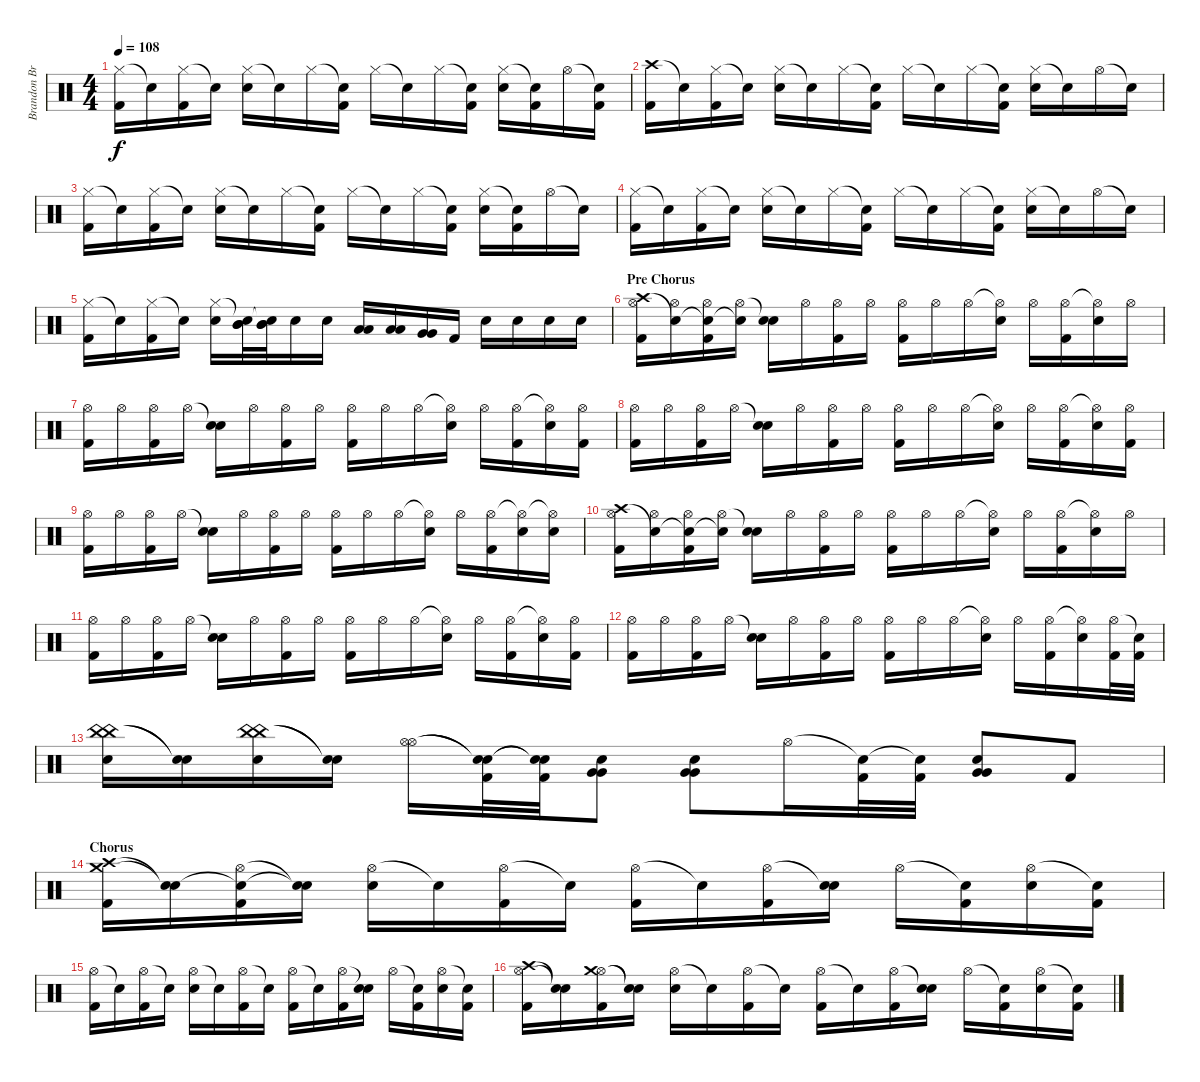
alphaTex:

\track ("Brandon Brown (Drums)" "Brandon Br") {instrument percussion}
\staff {score}
\articulation defaults
\ts (4 4)
\tempo 108
\clef neutral
\ks c
("Hi-Hat (closed)" "Kick (hit) 2").16{dy f} "Snare (hit)"{t}.16 ("Hi-Hat (closed)" "Kick (hit) 2").16 "Snare (hit)"{t}.16 ("Hi-Hat (closed)" "Electric Snare (hit)").16 "Snare (hit)"{t}.16 "Hi-Hat (closed)".16 ("Snare (hit)"{t} "Kick (hit) 2").16 "Hi-Hat (closed)".16 "Snare (hit)"{t}.16 "Hi-Hat (closed)".16 ("Snare (hit)"{t} "Kick (hit) 2").16 ("Hi-Hat (closed)" "Electric Snare (hit)").16 ("Snare (hit)"{t} "Kick (hit) 2").16 "Hi-Hat (open)".16 ("Snare (hit)"{t} "Kick (hit) 2").16 |
("Crash high (hit)" "Kick (hit) 2").16 "Snare (hit)"{t}.16 ("Hi-Hat (closed)" "Kick (hit) 2").16 "Snare (hit)"{t}.16 ("Hi-Hat (closed)" "Electric Snare (hit)").16 "Snare (hit)"{t}.16 "Hi-Hat (closed)".16 ("Snare (hit)"{t} "Kick (hit) 2").16 "Hi-Hat (closed)".16 "Snare (hit)"{t}.16 "Hi-Hat (closed)".16 ("Snare (hit)"{t} "Kick (hit) 2").16 ("Hi-Hat (closed)" "Electric Snare (hit)").16 "Snare (hit)"{t}.16 "Hi-Hat (open)".16 "Snare (hit)"{t}.16 |
("Hi-Hat (closed)" "Kick (hit) 2").16 "Snare (hit)"{t}.16 ("Hi-Hat (closed)" "Kick (hit) 2").16 "Snare (hit)"{t}.16 ("Hi-Hat (closed)" "Electric Snare (hit)").16 "Snare (hit)"{t}.16 "Hi-Hat (closed)".16 ("Snare (hit)"{t} "Kick (hit) 2").16 "Hi-Hat (closed)".16 "Snare (hit)"{t}.16 "Hi-Hat (closed)".16 ("Snare (hit)"{t} "Kick (hit) 2").16 ("Hi-Hat (closed)" "Electric Snare (hit)").16 ("Snare (hit)"{t} "Kick (hit) 2").16 "Hi-Hat (open)".16 "Snare (hit)"{t}.16 |
("Hi-Hat (closed)" "Kick (hit) 2").16 "Snare (hit)"{t}.16 ("Hi-Hat (closed)" "Kick (hit) 2").16 "Snare (hit)"{t}.16 ("Hi-Hat (closed)" "Electric Snare (hit)").16 "Snare (hit)"{t}.16 "Hi-Hat (closed)".16 ("Snare (hit)"{t} "Kick (hit) 2").16 "Hi-Hat (closed)".16 "Snare (hit)"{t}.16 "Hi-Hat (closed)".16 ("Snare (hit)"{t} "Kick (hit) 2").16 ("Hi-Hat (closed)" "Electric Snare (hit)").16 "Snare (hit)"{t}.16 "Hi-Hat (open)".16 "Snare (hit)"{t}.16 |
("Hi-Hat (closed)" "Kick (hit) 2").16 "Snare (hit)"{t}.16 ("Hi-Hat (closed)" "Kick (hit) 2").16 "Snare (hit)"{t}.16 ("Hi-Hat (closed)" "Electric Snare (hit)").16 ("Snare (hit)"{t} "Mid Tom (hit)" "Mid Tom (hit)").32 ("Snare (hit)"{t} "Mid Tom (hit)" "Mid Tom (hit)").32 "Electric Snare (hit)".16 "Electric Snare (hit)".16 ("Low Tom (hit)" "Low Tom (hit)").16 ("Low Tom (hit)" "Low Tom (hit)").16 ("Very Low Tom (hit)" "Very Low Tom (hit)").16 "Kick (hit) 2".16 "Electric Snare (hit)".16 "Electric Snare (hit)".16 "Electric Snare (hit)".16 "Electric Snare (hit)".16 |
\section ("" "Pre Chorus")
("Hi-Hat (open)" "Crash high (hit)" "Kick (hit) 2").16 ("Hi-Hat (open)" "Snare (hit)"{t}).16 ("Hi-Hat (open)" "Snare (hit)"{t} "Kick (hit) 2").16 ("Hi-Hat (open)" "Snare (hit)"{t}).16 ("Snare (hit)"{t} "Electric Snare (hit)").16 "Hi-Hat (open)".16 ("Hi-Hat (open)" "Kick (hit) 2").16 "Hi-Hat (open)".16 ("Hi-Hat (open)" "Kick (hit) 2").16 "Hi-Hat (open)".16 "Hi-Hat (open)".16 ("Hi-Hat (open)"{t} "Electric Snare (hit)").16 "Hi-Hat (open)".16 ("Hi-Hat (open)" "Kick (hit) 2").16 ("Hi-Hat (open)"{t} "Electric Snare (hit)").16 "Hi-Hat (open)".16 |
("Hi-Hat (open)" "Kick (hit) 2").16 "Hi-Hat (open)".16 ("Hi-Hat (open)" "Kick (hit) 2").16 "Hi-Hat (open)".16 ("Snare (hit)"{t} "Electric Snare (hit)").16 "Hi-Hat (open)".16 ("Hi-Hat (open)" "Kick (hit) 2").16 "Hi-Hat (open)".16 ("Hi-Hat (open)" "Kick (hit) 2").16 "Hi-Hat (open)".16 "Hi-Hat (open)".16 ("Hi-Hat (open)"{t} "Electric Snare (hit)").16 "Hi-Hat (open)".16 ("Hi-Hat (open)" "Kick (hit) 2").16 ("Hi-Hat (open)"{t} "Electric Snare (hit)").16 ("Hi-Hat (open)" "Kick (hit) 2").16 |
("Hi-Hat (open)" "Kick (hit) 2").16 "Hi-Hat (open)".16 ("Hi-Hat (open)" "Kick (hit) 2").16 "Hi-Hat (open)".16 ("Snare (hit)"{t} "Electric Snare (hit)").16 "Hi-Hat (open)".16 ("Hi-Hat (open)" "Kick (hit) 2").16 "Hi-Hat (open)".16 ("Hi-Hat (open)" "Kick (hit) 2").16 "Hi-Hat (open)".16 "Hi-Hat (open)".16 ("Hi-Hat (open)"{t} "Electric Snare (hit)").16 "Hi-Hat (open)".16 ("Hi-Hat (open)" "Kick (hit) 2").16 ("Hi-Hat (open)"{t} "Electric Snare (hit)").16 ("Hi-Hat (open)" "Kick (hit) 2").16 |
("Hi-Hat (open)" "Kick (hit) 2").16 "Hi-Hat (open)".16 ("Hi-Hat (open)" "Kick (hit) 2").16 "Hi-Hat (open)".16 ("Snare (hit)"{t} "Electric Snare (hit)").16 "Hi-Hat (open)".16 ("Hi-Hat (open)" "Kick (hit) 2").16 "Hi-Hat (open)".16 ("Hi-Hat (open)" "Kick (hit) 2").16 "Hi-Hat (open)".16 "Hi-Hat (open)".16 ("Hi-Hat (open)"{t} "Electric Snare (hit)").16 "Hi-Hat (open)".16 ("Hi-Hat (open)" "Kick (hit) 2").16 ("Hi-Hat (open)"{t} "Electric Snare (hit)").16 ("Hi-Hat (open)"{t} "Electric Snare (hit)").16 |
("Hi-Hat (open)" "Crash high (hit)" "Kick (hit) 2").16 ("Hi-Hat (open)" "Snare (hit)"{t}).16 ("Hi-Hat (open)" "Snare (hit)"{t} "Kick (hit) 2").16 ("Hi-Hat (open)" "Snare (hit)"{t}).16 ("Snare (hit)"{t} "Electric Snare (hit)").16 "Hi-Hat (open)".16 ("Hi-Hat (open)" "Kick (hit) 2").16 "Hi-Hat (open)".16 ("Hi-Hat (open)" "Kick (hit) 2").16 "Hi-Hat (open)".16 "Hi-Hat (open)".16 ("Hi-Hat (open)"{t} "Electric Snare (hit)").16 "Hi-Hat (open)".16 ("Hi-Hat (open)" "Kick (hit) 2").16 ("Hi-Hat (open)"{t} "Electric Snare (hit)").16 "Hi-Hat (open)".16 |
("Hi-Hat (open)" "Kick (hit) 2").16 "Hi-Hat (open)".16 ("Hi-Hat (open)" "Kick (hit) 2").16 "Hi-Hat (open)".16 ("Snare (hit)"{t} "Electric Snare (hit)").16 "Hi-Hat (open)".16 ("Hi-Hat (open)" "Kick (hit) 2").16 "Hi-Hat (open)".16 ("Hi-Hat (open)" "Kick (hit) 2").16 "Hi-Hat (open)".16 "Hi-Hat (open)".16 ("Hi-Hat (open)"{t} "Electric Snare (hit)").16 "Hi-Hat (open)".16 ("Hi-Hat (open)" "Kick (hit) 2").16 ("Hi-Hat (open)"{t} "Electric Snare (hit)").16 ("Hi-Hat (open)" "Kick (hit) 2").16 |
("Hi-Hat (open)" "Kick (hit) 2").16 "Hi-Hat (open)".16 ("Hi-Hat (open)" "Kick (hit) 2").16 "Hi-Hat (open)".16 ("Snare (hit)"{t} "Electric Snare (hit)").16 "Hi-Hat (open)".16 ("Hi-Hat (open)" "Kick (hit) 2").16 "Hi-Hat (open)".16 ("Hi-Hat (open)" "Kick (hit) 2").16 "Hi-Hat (open)".16 "Hi-Hat (open)".16 ("Hi-Hat (open)"{t} "Electric Snare (hit)").16 "Hi-Hat (open)".16 ("Hi-Hat (open)" "Kick (hit) 2").16 ("Hi-Hat (open)"{t} "Electric Snare (hit)").16 ("Hi-Hat (open)" "Kick (hit) 2").32 ("Snare (hit)"{t} "Kick (hit) 2").32 |
("China (hit)" "China (hit)" "Electric Snare (hit)").16 ("Snare (hit)"{t} "Snare (hit)"{t}).16 ("China (hit)" "China (hit)" "Electric Snare (hit)").16 ("Snare (hit)"{t} "Snare (hit)"{t}).16 ("Hi-Hat (open)" "Hi-Hat (open)").16 ("Snare (hit)"{t} "Snare (hit)"{t} "Kick (hit) 2").32 ("Snare (hit)"{t} "Snare (hit)"{t} "Kick (hit) 2").32 ("Electric Snare (hit)" "Very Low Tom (hit)" "Very Low Tom (hit)").8 ("Electric Snare (hit)" "Very Low Tom (hit)" "Very Low Tom (hit)").8 "Hi-Hat (open)".16 ("Snare (hit)"{t} "Kick (hit) 2").32 ("Snare (hit)"{t} "Kick (hit) 2").32 ("Electric Snare (hit)" "Very Low Tom (hit)" "Very Low Tom (hit)").8 "Kick (hit) 2".8 |
\section ("" "Chorus")
("Crash medium (hit)" "Crash high (hit)" "Kick (hit) 2").16 ("Snare (hit)"{t} "Snare (hit)"{t}).16 ("Hi-Hat (open)" "Snare (hit)"{t} "Kick (hit) 2").16 ("Snare (hit)"{t} "Snare (hit)"{t}).16 ("Hi-Hat (open)" "Electric Snare (hit)").16 "Snare (hit)"{t}.16 ("Hi-Hat (open)" "Kick (hit) 2").16 "Snare (hit)"{t}.16 ("Hi-Hat (open)" "Kick (hit) 2").16 "Snare (hit)"{t}.16 ("Hi-Hat (open)" "Kick (hit) 2").16 ("Snare (hit)"{t} "Electric Snare (hit)").16 "Hi-Hat (open)".16 ("Snare (hit)"{t} "Kick (hit) 2").16 ("Hi-Hat (open)" "Electric Snare (hit)").16 ("Snare (hit)"{t} "Kick (hit) 2").16 |
("Hi-Hat (open)" "Kick (hit) 2").16 "Snare (hit)"{t}.16 ("Hi-Hat (open)" "Kick (hit) 2").16 "Snare (hit)"{t}.16 ("Hi-Hat (open)" "Electric Snare (hit)").16 "Snare (hit)"{t}.16 ("Hi-Hat (open)" "Kick (hit) 2").16 "Snare (hit)"{t}.16 ("Hi-Hat (open)" "Kick (hit) 2").16 "Snare (hit)"{t}.16 ("Hi-Hat (open)" "Kick (hit) 2").16 ("Snare (hit)"{t} "Electric Snare (hit)").16 "Hi-Hat (open)".16 ("Snare (hit)"{t} "Kick (hit) 2").16 ("Hi-Hat (open)" "Electric Snare (hit)").16 ("Snare (hit)"{t} "Kick (hit) 2").16 |
("Hi-Hat (open)" "Crash high (hit)" "Kick (hit) 2").16 ("Snare (hit)"{t} "Snare (hit)"{t}).16 ("Hi-Hat (open)" "Crash medium (hit)" "Kick (hit) 2").16 ("Snare (hit)"{t} "Snare (hit)"{t}).16 ("Hi-Hat (open)" "Electric Snare (hit)").16 "Snare (hit)"{t}.16 ("Hi-Hat (open)" "Kick (hit) 2").16 "Snare (hit)"{t}.16 ("Hi-Hat (open)" "Kick (hit) 2").16 "Snare (hit)"{t}.16 ("Hi-Hat (open)" "Kick (hit) 2").16 ("Snare (hit)"{t} "Electric Snare (hit)").16 "Hi-Hat (open)".16 ("Snare (hit)"{t} "Kick (hit) 2").16 ("Hi-Hat (open)" "Electric Snare (hit)").16 ("Snare (hit)"{t} "Kick (hit) 2").16
